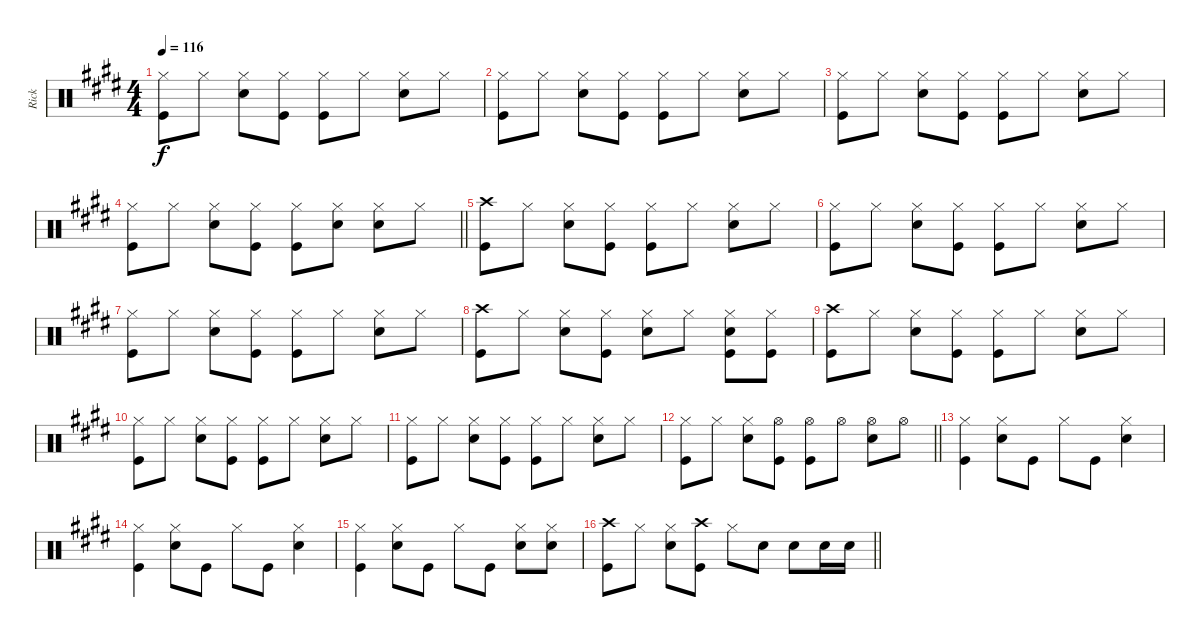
\track ("Rick" "Rick") {instrument percussion}
\staff {score}
\articulation defaults
\ts (4 4)
\tempo 116
\clef neutral
\ks e
("Hi-Hat (closed)" "Kick (hit)").8{dy f} "Hi-Hat (closed)".8 ("Hi-Hat (closed)" "Snare (hit) 2").8 ("Hi-Hat (closed)" "Kick (hit)").8 ("Hi-Hat (closed)" "Kick (hit)").8 "Hi-Hat (closed)".8 ("Hi-Hat (closed)" "Snare (hit) 2").8 "Hi-Hat (closed)".8 |
("Hi-Hat (closed)" "Kick (hit)").8 "Hi-Hat (closed)".8 ("Hi-Hat (closed)" "Snare (hit) 2").8 ("Hi-Hat (closed)" "Kick (hit)").8 ("Hi-Hat (closed)" "Kick (hit)").8 "Hi-Hat (closed)".8 ("Hi-Hat (closed)" "Snare (hit) 2").8 "Hi-Hat (closed)".8 |
("Hi-Hat (closed)" "Kick (hit)").8 "Hi-Hat (closed)".8 ("Hi-Hat (closed)" "Snare (hit) 2").8 ("Hi-Hat (closed)" "Kick (hit)").8 ("Hi-Hat (closed)" "Kick (hit)").8 "Hi-Hat (closed)".8 ("Hi-Hat (closed)" "Snare (hit) 2").8 "Hi-Hat (closed)".8 |
\barLineRight lightlight
("Hi-Hat (closed)" "Kick (hit)").8 "Hi-Hat (closed)".8 ("Hi-Hat (closed)" "Snare (hit) 2").8 ("Hi-Hat (closed)" "Kick (hit)").8 ("Hi-Hat (closed)" "Kick (hit)").8 ("Hi-Hat (closed)" "Snare (hit) 2").8 ("Hi-Hat (closed)" "Snare (hit) 2").8 "Hi-Hat (closed)".8 |
("Crash high (hit)" "Kick (hit)").8 "Hi-Hat (closed)".8 ("Hi-Hat (closed)" "Snare (hit) 2").8 ("Hi-Hat (closed)" "Kick (hit)").8 ("Hi-Hat (closed)" "Kick (hit)").8 "Hi-Hat (closed)".8 ("Hi-Hat (closed)" "Snare (hit) 2").8 "Hi-Hat (closed)".8 |
("Hi-Hat (closed)" "Kick (hit)").8 "Hi-Hat (closed)".8 ("Hi-Hat (closed)" "Snare (hit) 2").8 ("Hi-Hat (closed)" "Kick (hit)").8 ("Hi-Hat (closed)" "Kick (hit)").8 "Hi-Hat (closed)".8 ("Hi-Hat (closed)" "Snare (hit) 2").8 "Hi-Hat (closed)".8 |
("Hi-Hat (closed)" "Kick (hit)").8 "Hi-Hat (closed)".8 ("Hi-Hat (closed)" "Snare (hit) 2").8 ("Hi-Hat (closed)" "Kick (hit)").8 ("Hi-Hat (closed)" "Kick (hit)").8 "Hi-Hat (closed)".8 ("Hi-Hat (closed)" "Snare (hit) 2").8 "Hi-Hat (closed)".8 |
("Crash high (hit)" "Kick (hit)").8 "Hi-Hat (closed)".8 ("Hi-Hat (closed)" "Snare (hit) 2").8 ("Hi-Hat (closed)" "Kick (hit)").8 ("Hi-Hat (closed)" "Snare (hit) 2").8 "Hi-Hat (closed)".8 ("Hi-Hat (closed)" "Snare (hit) 2" "Kick (hit)").8 ("Hi-Hat (closed)" "Kick (hit)").8 |
("Crash high (hit)" "Kick (hit)").8 "Hi-Hat (closed)".8 ("Hi-Hat (closed)" "Snare (hit) 2").8 ("Hi-Hat (closed)" "Kick (hit)").8 ("Hi-Hat (closed)" "Kick (hit)").8 "Hi-Hat (closed)".8 ("Hi-Hat (closed)" "Snare (hit) 2").8 "Hi-Hat (closed)".8 |
("Hi-Hat (closed)" "Kick (hit)").8 "Hi-Hat (closed)".8 ("Hi-Hat (closed)" "Snare (hit) 2").8 ("Hi-Hat (closed)" "Kick (hit)").8 ("Hi-Hat (closed)" "Kick (hit)").8 "Hi-Hat (closed)".8 ("Hi-Hat (closed)" "Snare (hit) 2").8 "Hi-Hat (closed)".8 |
("Hi-Hat (closed)" "Kick (hit)").8 "Hi-Hat (closed)".8 ("Hi-Hat (closed)" "Snare (hit) 2").8 ("Hi-Hat (closed)" "Kick (hit)").8 ("Hi-Hat (closed)" "Kick (hit)").8 "Hi-Hat (closed)".8 ("Hi-Hat (closed)" "Snare (hit) 2").8 "Hi-Hat (closed)".8 |
\barLineRight lightlight
("Hi-Hat (closed)" "Kick (hit)").8 "Hi-Hat (closed)".8 ("Hi-Hat (closed)" "Snare (hit) 2").8 ("Hi-Hat (open)" "Kick (hit)").8 ("Hi-Hat (open)" "Kick (hit)").8 "Hi-Hat (open)".8 ("Hi-Hat (open)" "Snare (hit) 2").8 "Hi-Hat (open)".8 |
("Hi-Hat (closed)" "Kick (hit)").4 ("Hi-Hat (closed)" "Snare (hit) 2").8 "Kick (hit)".8 "Hi-Hat (closed)".8 "Kick (hit)".8 ("Hi-Hat (closed)" "Snare (hit) 2").4 |
("Hi-Hat (closed)" "Kick (hit)").4 ("Hi-Hat (closed)" "Snare (hit) 2").8 "Kick (hit)".8 "Hi-Hat (closed)".8 "Kick (hit)".8 ("Hi-Hat (closed)" "Snare (hit) 2").4 |
("Hi-Hat (closed)" "Kick (hit)").4 ("Hi-Hat (closed)" "Snare (hit) 2").8 "Kick (hit)".8 "Hi-Hat (closed)".8 "Kick (hit)".8 ("Hi-Hat (closed)" "Snare (hit) 2").8 ("Hi-Hat (closed)" "Snare (hit) 2").8 |
\barLineRight lightlight
("Crash high (hit)" "Kick (hit)").8 "Hi-Hat (closed)".8 ("Hi-Hat (closed)" "Snare (hit) 2").8 ("Crash high (hit)" "Kick (hit)").8 "Hi-Hat (closed)".8 "Snare (hit) 2".8 "Snare (hit) 2".8 "Snare (hit) 2".16 "Snare (hit) 2".16
